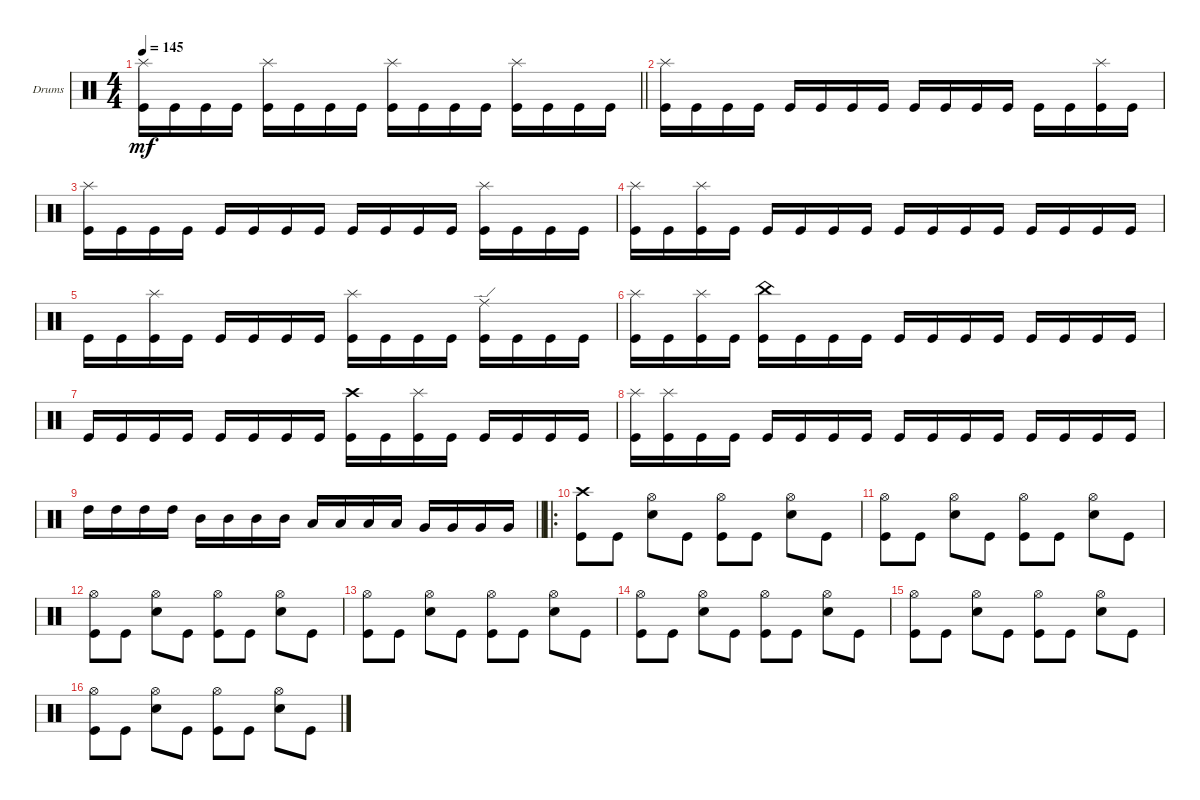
\defaultSystemsLayout 4
\bracketExtendMode groupsimilarinstruments
\firstSystemTrackNameOrientation horizontal
\otherSystemsTrackNameOrientation horizontal
\track ("Drumkit" "Drums") {instrument percussion}
\staff {score}
\articulation defaults
\ts (4 4)
\tempo 145
\clef neutral
\barLineRight lightlight
\ks c
("Kick (hit)" "Splash (hit)").16{dy mf} "Kick (hit)".16 "Kick (hit)".16 "Kick (hit)".16 ("Kick (hit)" "Splash (hit)").16 "Kick (hit)".16 "Kick (hit)".16 "Kick (hit)".16 ("Kick (hit)" "Splash (hit)").16 "Kick (hit)".16 "Kick (hit)".16 "Kick (hit)".16 ("Kick (hit)" "Splash (hit)").16 "Kick (hit)".16 "Kick (hit)".16 "Kick (hit)".16 |
("Kick (hit)" "Splash (hit)").16 "Kick (hit)".16 "Kick (hit)".16 "Kick (hit)".16 "Kick (hit)".16 "Kick (hit)".16 "Kick (hit)".16 "Kick (hit)".16 "Kick (hit)".16 "Kick (hit)".16 "Kick (hit)".16 "Kick (hit)".16 "Kick (hit)".16 "Kick (hit)".16 ("Kick (hit)" "Splash (hit)").16 "Kick (hit)".16 |
("Kick (hit)" "Splash (hit)").16 "Kick (hit)".16 "Kick (hit)".16 "Kick (hit)".16 "Kick (hit)".16 "Kick (hit)".16 "Kick (hit)".16 "Kick (hit)".16 "Kick (hit)".16 "Kick (hit)".16 "Kick (hit)".16 "Kick (hit)".16 ("Kick (hit)" "Splash (hit)").16 "Kick (hit)".16 "Kick (hit)".16 "Kick (hit)".16 |
("Kick (hit)" "Splash (hit)").16 "Kick (hit)".16 ("Kick (hit)" "Splash (hit)").16 "Kick (hit)".16 "Kick (hit)".16 "Kick (hit)".16 "Kick (hit)".16 "Kick (hit)".16 "Kick (hit)".16 "Kick (hit)".16 "Kick (hit)".16 "Kick (hit)".16 "Kick (hit)".16 "Kick (hit)".16 "Kick (hit)".16 "Kick (hit)".16 |
"Kick (hit)".16 "Kick (hit)".16 ("Kick (hit)" "Splash (hit)").16 "Kick (hit)".16 "Kick (hit)".16 "Kick (hit)".16 "Kick (hit)".16 "Kick (hit)".16 ("Kick (hit)" "Splash (hit)").16 "Kick (hit)".16 "Kick (hit)".16 "Kick (hit)".16 ("Kick (hit)" "Ride (edge)").16 "Kick (hit)".16 "Kick (hit)".16 "Kick (hit)".16 |
("Kick (hit)" "Splash (hit)").16 "Kick (hit)".16 ("Kick (hit)" "Splash (hit)").16 "Kick (hit)".16 ("Kick (hit)" "China (hit)").16 "Kick (hit)".16 "Kick (hit)".16 "Kick (hit)".16 "Kick (hit)".16 "Kick (hit)".16 "Kick (hit)".16 "Kick (hit)".16 "Kick (hit)".16 "Kick (hit)".16 "Kick (hit)".16 "Kick (hit)".16 |
"Kick (hit)".16 "Kick (hit)".16 "Kick (hit)".16 "Kick (hit)".16 "Kick (hit)".16 "Kick (hit)".16 "Kick (hit)".16 "Kick (hit)".16 ("Kick (hit)" "Crash high (hit)").16 "Kick (hit)".16 ("Kick (hit)" "Splash (hit)").16 "Kick (hit)".16 "Kick (hit)".16 "Kick (hit)".16 "Kick (hit)".16 "Kick (hit)".16 |
("Kick (hit)" "Splash (hit)").16 ("Kick (hit)" "Splash (hit)").16 "Kick (hit)".16 "Kick (hit)".16 "Kick (hit)".16 "Kick (hit)".16 "Kick (hit)".16 "Kick (hit)".16 "Kick (hit)".16 "Kick (hit)".16 "Kick (hit)".16 "Kick (hit)".16 "Kick (hit)".16 "Kick (hit)".16 "Kick (hit)".16 "Kick (hit)".16 |
\barLineRight lightlight "High Tom (hit)".16 "High Tom (hit)".16 "High Tom (hit)".16 "High Tom (hit)".16 "Mid Tom (hit)".16 "Mid Tom (hit)".16 "Mid Tom (hit)".16 "Mid Tom (hit)".16 "Low Tom (hit)".16 "Low Tom (hit)".16 "Low Tom (hit)".16 "Low Tom (hit)".16 "Very Low Tom (hit)".16 "Very Low Tom (hit)".16 "Very Low Tom (hit)".16 "Very Low Tom (hit)".16
|
\ro
("Kick (hit)" "Crash high (hit)").8 "Kick (hit)".8 ("Snare (hit) 2" "Hi-Hat (open)").8 "Kick (hit)".8 ("Kick (hit)" "Hi-Hat (open)").8 "Kick (hit)".8 ("Snare (hit) 2" "Hi-Hat (open)").8 "Kick (hit)".8 |
("Kick (hit)" "Hi-Hat (open)").8 "Kick (hit)".8 ("Snare (hit) 2" "Hi-Hat (open)").8 "Kick (hit)".8 ("Kick (hit)" "Hi-Hat (open)").8 "Kick (hit)".8 ("Snare (hit) 2" "Hi-Hat (open)").8 "Kick (hit)".8 |
("Kick (hit)" "Hi-Hat (open)").8 "Kick (hit)".8 ("Snare (hit) 2" "Hi-Hat (open)").8 "Kick (hit)".8 ("Kick (hit)" "Hi-Hat (open)").8 "Kick (hit)".8 ("Snare (hit) 2" "Hi-Hat (open)").8 "Kick (hit)".8 |
("Kick (hit)" "Hi-Hat (open)").8 "Kick (hit)".8 ("Snare (hit) 2" "Hi-Hat (open)").8 "Kick (hit)".8 ("Kick (hit)" "Hi-Hat (open)").8 "Kick (hit)".8 ("Snare (hit) 2" "Hi-Hat (open)").8 "Kick (hit)".8 |
("Kick (hit)" "Hi-Hat (open)").8 "Kick (hit)".8 ("Snare (hit) 2" "Hi-Hat (open)").8 "Kick (hit)".8 ("Kick (hit)" "Hi-Hat (open)").8 "Kick (hit)".8 ("Snare (hit) 2" "Hi-Hat (open)").8 "Kick (hit)".8 |
("Kick (hit)" "Hi-Hat (open)").8 "Kick (hit)".8 ("Snare (hit) 2" "Hi-Hat (open)").8 "Kick (hit)".8 ("Kick (hit)" "Hi-Hat (open)").8 "Kick (hit)".8 ("Snare (hit) 2" "Hi-Hat (open)").8 "Kick (hit)".8 |
("Kick (hit)" "Hi-Hat (open)").8 "Kick (hit)".8 ("Snare (hit) 2" "Hi-Hat (open)").8 "Kick (hit)".8 ("Kick (hit)" "Hi-Hat (open)").8 "Kick (hit)".8 ("Snare (hit) 2" "Hi-Hat (open)").8 "Kick (hit)".8
